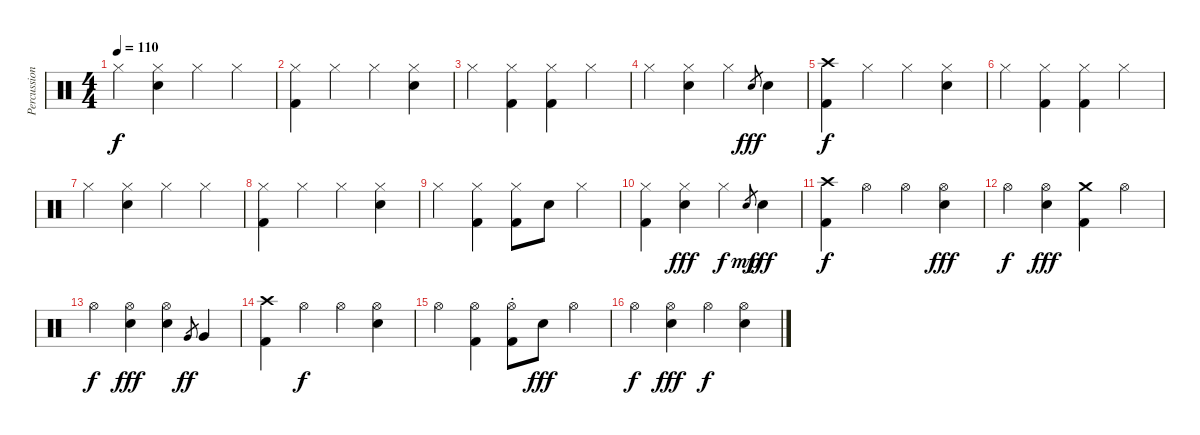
\track ("Percussion" "Percussion") {instrument percussion}
\staff {score}
\articulation defaults
\ts (4 4)
\tempo 110
\clef neutral
\ks c "Hi-Hat (closed)".4{dy f}
("Hi-Hat (closed)" "Electric Snare (hit)").4 "Hi-Hat (closed)".4 "Hi-Hat (closed)".4 |
("Hi-Hat (closed)" "Kick (hit) 2").4 "Hi-Hat (closed)".4 "Hi-Hat (closed)".4 ("Hi-Hat (closed)" "Electric Snare (hit)").4 |
"Hi-Hat (closed)".4 ("Hi-Hat (closed)" "Kick (hit) 2").4 ("Hi-Hat (closed)" "Kick (hit) 2").4 "Hi-Hat (closed)".4 |
"Hi-Hat (closed)".4 ("Hi-Hat (closed)" "Electric Snare (hit)").4 "Hi-Hat (closed)".4 "Electric Snare (hit)".8{gr dy fff} "Electric Snare (hit)".4 |
("Crash high (hit)" "Kick (hit) 2").4{dy f} "Hi-Hat (closed)".4 "Hi-Hat (closed)".4 ("Hi-Hat (closed)" "Electric Snare (hit)").4 |
"Hi-Hat (closed)".4 ("Hi-Hat (closed)" "Kick (hit) 2").4 ("Hi-Hat (closed)" "Kick (hit) 2").4 "Hi-Hat (closed)".4 |
"Hi-Hat (closed)".4 ("Hi-Hat (closed)" "Electric Snare (hit)").4 "Hi-Hat (closed)".4 "Hi-Hat (closed)".4 |
("Hi-Hat (closed)" "Kick (hit) 2").4 "Hi-Hat (closed)".4 "Hi-Hat (closed)".4 ("Hi-Hat (closed)" "Electric Snare (hit)").4 |
"Hi-Hat (closed)".4 ("Hi-Hat (closed)" "Kick (hit) 2").4 ("Hi-Hat (closed)" "Kick (hit) 2").8 "Electric Snare (hit)".8 "Hi-Hat (closed)".4 |
("Hi-Hat (closed)" "Kick (hit) 2").4 ("Hi-Hat (closed)" "Electric Snare (hit)").4{dy fff} "Hi-Hat (closed)".4{dy f} "Electric Snare (hit)".8{gr dy mp} "Electric Snare (hit)".4{dy fff} |
("Crash high (hit)" "Kick (hit) 2").4{dy f} "Hi-Hat (open)".4 "Hi-Hat (open)".4 ("Hi-Hat (open)" "Electric Snare (hit)").4{dy fff} |
"Hi-Hat (open)".4{dy f} ("Hi-Hat (open)" "Electric Snare (hit)").4{dy fff} ("Crash medium (hit)" "Kick (hit) 2").4 "Hi-Hat (open)".4 |
"Hi-Hat (open)".4{dy f} ("Hi-Hat (open)" "Electric Snare (hit)").4{dy fff} ("Hi-Hat (open)" "Electric Snare (hit)").4 "Very Low Tom (hit)".8{gr dy ff} "Very Low Tom (hit)".4 |
("Crash high (hit)" "Kick (hit) 2").4 "Hi-Hat (open)".4{dy f} "Hi-Hat (open)".4 ("Hi-Hat (open)" "Electric Snare (hit)").4 |
"Hi-Hat (open)".4 ("Hi-Hat (open)" "Kick (hit) 2").4 ("Hi-Hat (open)"{st} "Kick (hit) 2").8 "Electric Snare (hit)".8{dy fff} "Hi-Hat (open)".4 |
"Hi-Hat (open)".4{dy f} ("Hi-Hat (open)" "Electric Snare (hit)").4{dy fff} "Hi-Hat (open)".4{dy f} ("Hi-Hat (open)" "Electric Snare (hit)").4
